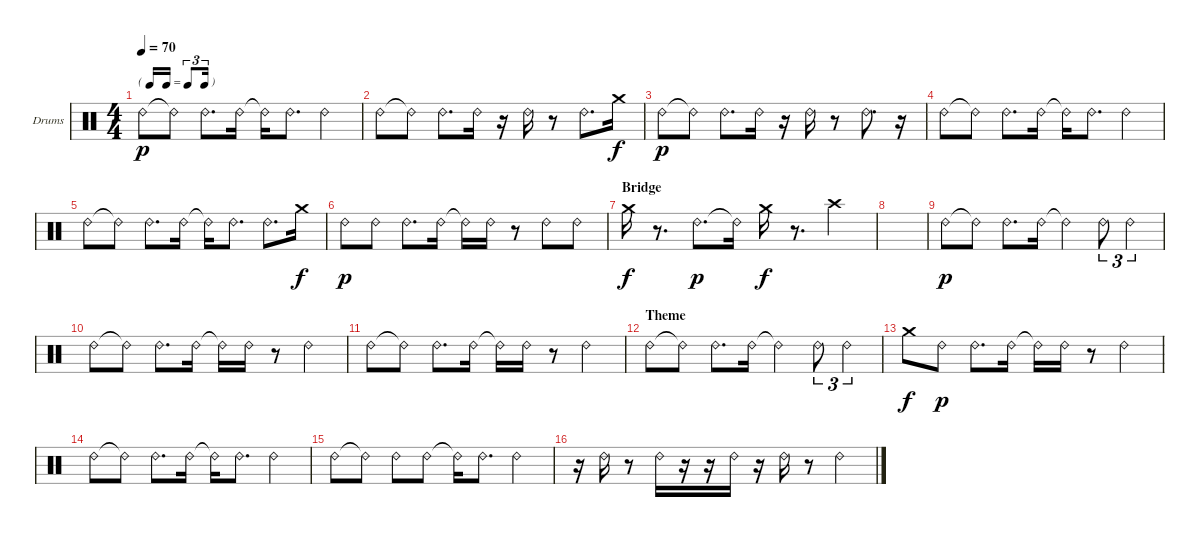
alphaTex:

\bracketExtendMode groupsimilarinstruments
\firstSystemTrackNameOrientation horizontal
\otherSystemsTrackNameOrientation horizontal
\track ("OH" "Drums") {instrument percussion}
\staff {score}
\articulation defaults
\ts (4 4)
\tf triplet16th
\tempo 70
\clef neutral
\scale
0.333333
\ks aminor "Ride (bell) 2".8{dy p} "Ride (bell) 2"{t}.8 "Ride (bell) 2".8{d} "Ride (bell) 2".16 "Ride (bell) 2"{t}.16 "Ride (bell) 2".8{d} "Ride (bell) 2".4
|
\scale
0.333333 "Ride (bell) 2".8 "Ride (bell) 2"{t}.8 "Ride (bell) 2".8{d} "Ride (bell) 2".16 r.16 "Ride (bell) 2".16 r.8 "Ride (bell) 2".8{d} "Crash medium (hit)".16{dy f} |
\scale
0.333333 "Ride (bell) 2".8{dy p} "Ride (bell) 2"{t}.8 "Ride (bell) 2".8{d} "Ride (bell) 2".16 r.16 "Ride (bell) 2".16 r.8 "Ride (bell) 2".8{d} r.16 |
"Ride (bell) 2".8 "Ride (bell) 2"{t}.8 "Ride (bell) 2".8{d} "Ride (bell) 2".16 "Ride (bell) 2"{t}.16 "Ride (bell) 2".8{d} "Ride (bell) 2".4 |
\scale
0.333333 "Ride (bell) 2".8 "Ride (bell) 2"{t}.8 "Ride (bell) 2".8{d} "Ride (bell) 2".16 "Ride (bell) 2"{t}.16 "Ride (bell) 2".8{d} "Ride (bell) 2".8{d} "Crash medium (hit)".16{dy f} |
"Ride (bell) 2".8{dy p} "Ride (bell) 2".8 "Ride (bell) 2".8{d} "Ride (bell) 2".16 "Ride (bell) 2"{t}.16 "Ride (bell) 2".16 r.8 "Ride (bell) 2".8 "Ride (bell) 2".8 |
\section ("" "Bridge")
\scale
0.333333 "Crash medium (hit)".16{dy f} r.8{d} "Ride (bell) 2".8{d dy p} "Ride (bell) 2"{t}.16 "Crash medium (hit)".16{dy f} r.8{d} "Crash high (hit)".4 |
\scale
0.333333 |
\scale
0.333333 "Ride (bell) 2".8{dy p} "Ride (bell) 2"{t}.8 "Ride (bell) 2".8{d} "Ride (bell) 2".16 "Ride (bell) 2"{t}.4 "Ride (bell) 2".8{tu (3 2)} "Ride (bell) 2".4{tu (3 2)} |
\scale
0.333333 "Ride (bell) 2".8 "Ride (bell) 2"{t}.8 "Ride (bell) 2".8{d} "Ride (bell) 2".16 "Ride (bell) 2"{t}.16 "Ride (bell) 2".16 r.8 "Ride (bell) 2".4 |
\scale
0.333333 "Ride (bell) 2".8 "Ride (bell) 2"{t}.8 "Ride (bell) 2".8{d} "Ride (bell) 2".16 "Ride (bell) 2"{t}.16 "Ride (bell) 2".16 r.8 "Ride (bell) 2".4 |
\section ("" "Theme")
\scale
0.333333 "Ride (bell) 2".8 "Ride (bell) 2"{t}.8 "Ride (bell) 2".8{d} "Ride (bell) 2".16 "Ride (bell) 2"{t}.4 "Ride (bell) 2".8{tu (3 2)} "Ride (bell) 2".4{tu (3 2)} |
\scale
0.333333 "Crash medium (hit)".8{dy f} "Ride (bell) 2".8{dy p} "Ride (bell) 2".8{d} "Ride (bell) 2".16 "Ride (bell) 2"{t}.16 "Ride (bell) 2".16 r.8 "Ride (bell) 2".4 |
"Ride (bell) 2".8 "Ride (bell) 2"{t}.8 "Ride (bell) 2".8{d} "Ride (bell) 2".16 "Ride (bell) 2"{t}.16 "Ride (bell) 2".8{d} "Ride (bell) 2".4 |
"Ride (bell) 2".8 "Ride (bell) 2"{t}.8 "Ride (bell) 2".8 "Ride (bell) 2".8 "Ride (bell) 2"{t}.16 "Ride (bell) 2".8{d} "Ride (bell) 2".4 |
r.16 "Ride (bell) 2".16 r.8 "Ride (bell) 2".16 r.16 r.16 "Ride (bell) 2".16 r.16 "Ride (bell) 2".16 r.8 "Ride (bell) 2".4
